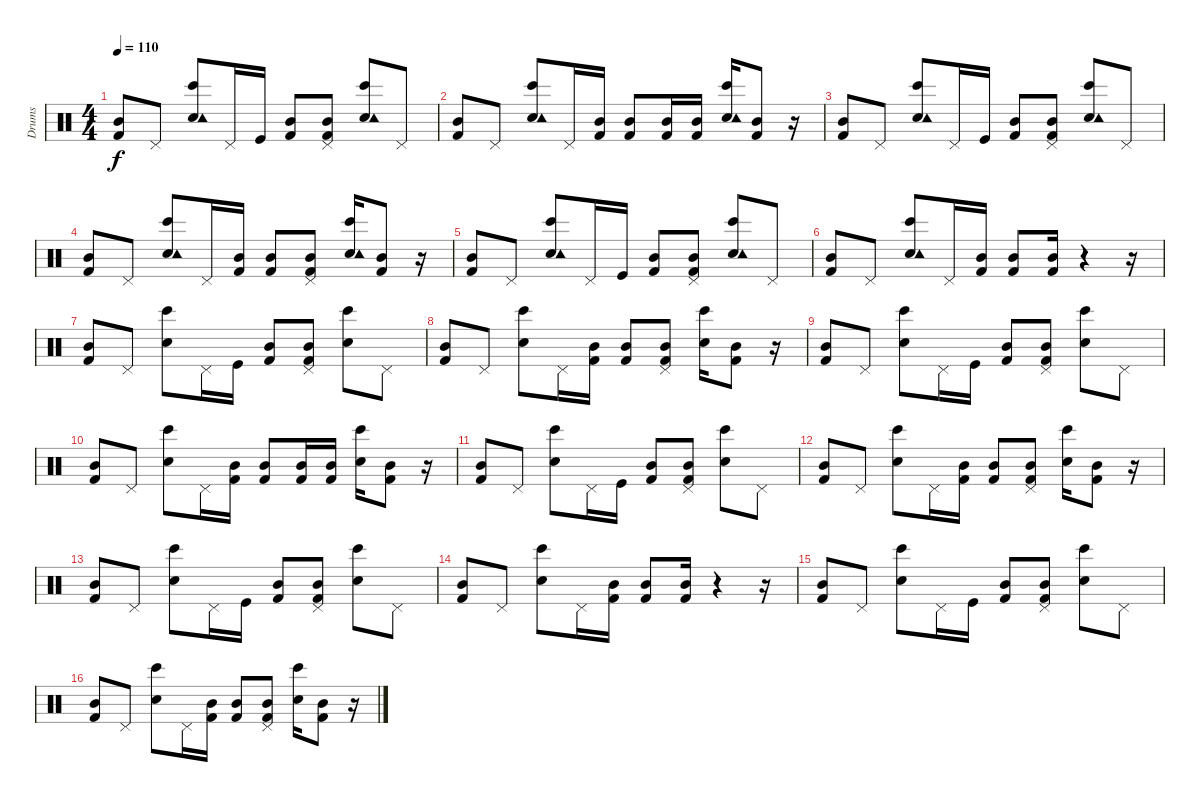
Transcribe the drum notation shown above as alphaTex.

\track ("Drums" "Drums") {instrument percussion}
\staff {score}
\articulation defaults
\ts (4 4)
\tempo 110
\clef neutral
\ks c
("Mid Tom (hit)" "Kick (hit) 2").8{dy f} "Pedal Hi-Hat (hit)".8 ("Electric Snare (hit)" "Bongo High (hit)" "Tambourine (hit)").8 "Pedal Hi-Hat (hit)".16 "Kick (hit)".16 ("Mid Tom (hit)" "Kick (hit) 2").8 ("Pedal Hi-Hat (hit)" "Mid Tom (hit)" "Kick (hit) 2").8 ("Electric Snare (hit)" "Bongo High (hit)" "Tambourine (hit)").8 "Pedal Hi-Hat (hit)".8 |
("Mid Tom (hit)" "Kick (hit) 2").8 "Pedal Hi-Hat (hit)".8 ("Electric Snare (hit)" "Bongo High (hit)" "Tambourine (hit)").8 "Pedal Hi-Hat (hit)".16 ("Mid Tom (hit)" "Kick (hit) 2").16 ("Mid Tom (hit)" "Kick (hit) 2").8 ("Mid Tom (hit)" "Kick (hit) 2").16 ("Mid Tom (hit)" "Kick (hit) 2").16 ("Electric Snare (hit)" "Bongo High (hit)" "Tambourine (hit)").16 ("Mid Tom (hit)" "Kick (hit) 2").8 r.16 |
("Mid Tom (hit)" "Kick (hit) 2").8 "Pedal Hi-Hat (hit)".8 ("Electric Snare (hit)" "Bongo High (hit)" "Tambourine (hit)").8 "Pedal Hi-Hat (hit)".16 "Kick (hit)".16 ("Mid Tom (hit)" "Kick (hit) 2").8 ("Pedal Hi-Hat (hit)" "Mid Tom (hit)" "Kick (hit) 2").8 ("Electric Snare (hit)" "Bongo High (hit)" "Tambourine (hit)").8 "Pedal Hi-Hat (hit)".8 |
("Mid Tom (hit)" "Kick (hit) 2").8 "Pedal Hi-Hat (hit)".8 ("Electric Snare (hit)" "Bongo High (hit)" "Tambourine (hit)").8 "Pedal Hi-Hat (hit)".16 ("Mid Tom (hit)" "Kick (hit) 2").16 ("Mid Tom (hit)" "Kick (hit) 2").8 ("Pedal Hi-Hat (hit)" "Mid Tom (hit)" "Kick (hit) 2").8 ("Electric Snare (hit)" "Bongo High (hit)" "Tambourine (hit)").16 ("Mid Tom (hit)" "Kick (hit) 2").8 r.16 |
("Mid Tom (hit)" "Kick (hit) 2").8 "Pedal Hi-Hat (hit)".8 ("Electric Snare (hit)" "Bongo High (hit)" "Tambourine (hit)").8 "Pedal Hi-Hat (hit)".16 "Kick (hit)".16 ("Mid Tom (hit)" "Kick (hit) 2").8 ("Pedal Hi-Hat (hit)" "Mid Tom (hit)" "Kick (hit) 2").8 ("Electric Snare (hit)" "Bongo High (hit)" "Tambourine (hit)").8 "Pedal Hi-Hat (hit)".8 |
("Mid Tom (hit)" "Kick (hit) 2").8 "Pedal Hi-Hat (hit)".8 ("Electric Snare (hit)" "Bongo High (hit)" "Tambourine (hit)").8 "Pedal Hi-Hat (hit)".16 ("Mid Tom (hit)" "Kick (hit) 2").16 ("Mid Tom (hit)" "Kick (hit) 2").8 ("Mid Tom (hit)" "Kick (hit) 2").16 r.4 r.16 |
("Mid Tom (hit)" "Kick (hit) 2").8 "Pedal Hi-Hat (hit)".8 ("Electric Snare (hit)" "Bongo High (hit)").8 "Pedal Hi-Hat (hit)".16 "Kick (hit)".16 ("Mid Tom (hit)" "Kick (hit) 2").8 ("Pedal Hi-Hat (hit)" "Mid Tom (hit)" "Kick (hit) 2").8 ("Electric Snare (hit)" "Bongo High (hit)").8 "Pedal Hi-Hat (hit)".8 |
("Mid Tom (hit)" "Kick (hit) 2").8 "Pedal Hi-Hat (hit)".8 ("Electric Snare (hit)" "Bongo High (hit)").8 "Pedal Hi-Hat (hit)".16 ("Mid Tom (hit)" "Kick (hit) 2").16 ("Mid Tom (hit)" "Kick (hit) 2").8 ("Pedal Hi-Hat (hit)" "Mid Tom (hit)" "Kick (hit) 2").8 ("Electric Snare (hit)" "Bongo High (hit)").16 ("Mid Tom (hit)" "Kick (hit) 2").8 r.16 |
("Mid Tom (hit)" "Kick (hit) 2").8 "Pedal Hi-Hat (hit)".8 ("Electric Snare (hit)" "Bongo High (hit)").8 "Pedal Hi-Hat (hit)".16 "Kick (hit)".16 ("Mid Tom (hit)" "Kick (hit) 2").8 ("Pedal Hi-Hat (hit)" "Mid Tom (hit)" "Kick (hit) 2").8 ("Electric Snare (hit)" "Bongo High (hit)").8 "Pedal Hi-Hat (hit)".8 |
("Mid Tom (hit)" "Kick (hit) 2").8 "Pedal Hi-Hat (hit)".8 ("Electric Snare (hit)" "Bongo High (hit)").8 "Pedal Hi-Hat (hit)".16 ("Mid Tom (hit)" "Kick (hit) 2").16 ("Mid Tom (hit)" "Kick (hit) 2").8 ("Mid Tom (hit)" "Kick (hit) 2").16 ("Mid Tom (hit)" "Kick (hit) 2").16 ("Electric Snare (hit)" "Bongo High (hit)").16 ("Mid Tom (hit)" "Kick (hit) 2").8 r.16 |
("Mid Tom (hit)" "Kick (hit) 2").8 "Pedal Hi-Hat (hit)".8 ("Electric Snare (hit)" "Bongo High (hit)").8 "Pedal Hi-Hat (hit)".16 "Kick (hit)".16 ("Mid Tom (hit)" "Kick (hit) 2").8 ("Pedal Hi-Hat (hit)" "Mid Tom (hit)" "Kick (hit) 2").8 ("Electric Snare (hit)" "Bongo High (hit)").8 "Pedal Hi-Hat (hit)".8 |
("Mid Tom (hit)" "Kick (hit) 2").8 "Pedal Hi-Hat (hit)".8 ("Electric Snare (hit)" "Bongo High (hit)").8 "Pedal Hi-Hat (hit)".16 ("Mid Tom (hit)" "Kick (hit) 2").16 ("Mid Tom (hit)" "Kick (hit) 2").8 ("Pedal Hi-Hat (hit)" "Mid Tom (hit)" "Kick (hit) 2").8 ("Electric Snare (hit)" "Bongo High (hit)").16 ("Mid Tom (hit)" "Kick (hit) 2").8 r.16 |
("Mid Tom (hit)" "Kick (hit) 2").8 "Pedal Hi-Hat (hit)".8 ("Electric Snare (hit)" "Bongo High (hit)").8 "Pedal Hi-Hat (hit)".16 "Kick (hit)".16 ("Mid Tom (hit)" "Kick (hit) 2").8 ("Pedal Hi-Hat (hit)" "Mid Tom (hit)" "Kick (hit) 2").8 ("Electric Snare (hit)" "Bongo High (hit)").8 "Pedal Hi-Hat (hit)".8 |
("Mid Tom (hit)" "Kick (hit) 2").8 "Pedal Hi-Hat (hit)".8 ("Electric Snare (hit)" "Bongo High (hit)").8 "Pedal Hi-Hat (hit)".16 ("Mid Tom (hit)" "Kick (hit) 2").16 ("Mid Tom (hit)" "Kick (hit) 2").8 ("Mid Tom (hit)" "Kick (hit) 2").16 r.4 r.16 |
("Mid Tom (hit)" "Kick (hit) 2").8 "Pedal Hi-Hat (hit)".8 ("Electric Snare (hit)" "Bongo High (hit)").8 "Pedal Hi-Hat (hit)".16 "Kick (hit)".16 ("Mid Tom (hit)" "Kick (hit) 2").8 ("Pedal Hi-Hat (hit)" "Mid Tom (hit)" "Kick (hit) 2").8 ("Electric Snare (hit)" "Bongo High (hit)").8 "Pedal Hi-Hat (hit)".8 |
("Mid Tom (hit)" "Kick (hit) 2").8 "Pedal Hi-Hat (hit)".8 ("Electric Snare (hit)" "Bongo High (hit)").8 "Pedal Hi-Hat (hit)".16 ("Mid Tom (hit)" "Kick (hit) 2").16 ("Mid Tom (hit)" "Kick (hit) 2").8 ("Pedal Hi-Hat (hit)" "Mid Tom (hit)" "Kick (hit) 2").8 ("Electric Snare (hit)" "Bongo High (hit)").16 ("Mid Tom (hit)" "Kick (hit) 2").8 r.16
